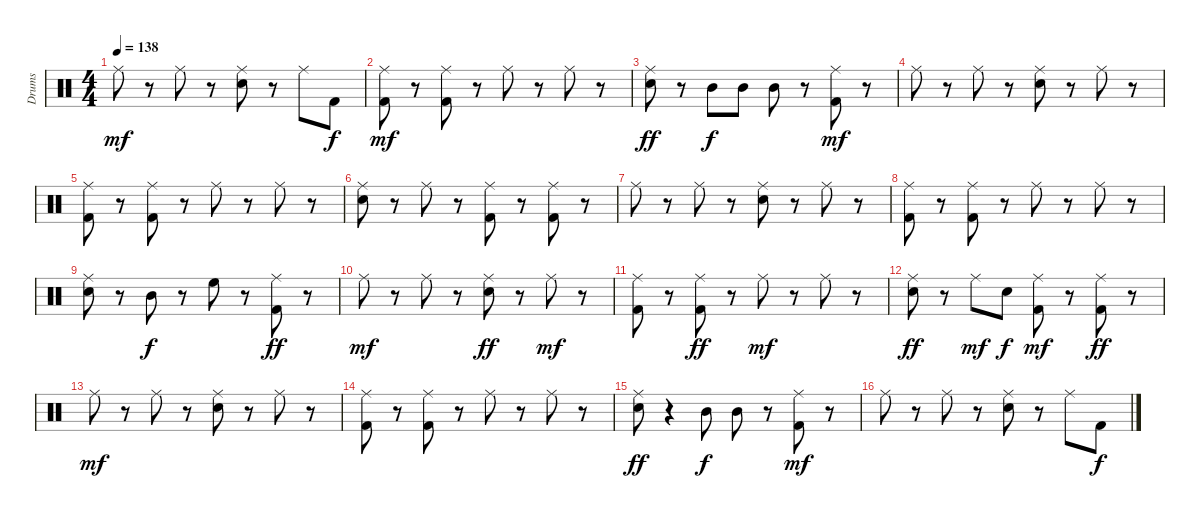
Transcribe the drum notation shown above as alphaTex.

\track ("Drums" "Drums") {instrument percussion}
\staff {score}
\articulation defaults
\ts (4 4)
\tempo 138
\clef neutral
\ks c "Ride (middle)".8{dy mf}
r.8 "Ride (middle)".8 r.8 ("Ride (middle)" "Snare (hit) 2").8 r.8 "Ride (middle)".8 "Kick (hit) 2".8{dy f} |
("Ride (middle)" "Kick (hit) 2").8{dy mf} r.8 ("Ride (middle)" "Kick (hit) 2").8 r.8 "Ride (middle)".8 r.8 "Ride (middle)".8 r.8 |
("Ride (middle)" "Snare (hit) 2").8{dy ff} r.8 "Mid Tom (hit)".8{dy f} "Mid Tom (hit)".8 "Mid Tom (hit)".8 r.8 ("Ride (middle)" "Kick (hit) 2").8{dy mf} r.8 |
"Ride (middle)".8 r.8 "Ride (middle)".8 r.8 ("Ride (middle)" "Snare (hit) 2").8 r.8 "Ride (middle)".8 r.8 |
("Ride (middle)" "Kick (hit) 2").8 r.8 ("Ride (middle)" "Kick (hit) 2").8 r.8 "Ride (middle)".8 r.8 "Ride (middle)".8 r.8 |
("Ride (middle)" "Snare (hit) 2").8 r.8 "Ride (middle)".8 r.8 ("Ride (middle)" "Kick (hit) 2").8 r.8 ("Ride (middle)" "Kick (hit) 2").8 r.8 |
"Ride (middle)".8 r.8 "Ride (middle)".8 r.8 ("Ride (middle)" "Snare (hit) 2").8 r.8 "Ride (middle)".8 r.8 |
("Ride (middle)" "Kick (hit) 2").8 r.8 ("Ride (middle)" "Kick (hit) 2").8 r.8 "Ride (middle)".8 r.8 "Ride (middle)".8 r.8 |
("Ride (middle)" "Snare (hit) 2").8 r.8 "Mid Tom (hit)".8{dy f} r.8 "High Floor Tom (hit)".8 r.8 ("Ride (middle)" "Kick (hit) 2").8{dy ff} r.8 |
"Ride (middle)".8{dy mf} r.8 "Ride (middle)".8 r.8 ("Ride (middle)" "Snare (hit) 2").8{dy ff} r.8 "Ride (middle)".8{dy mf} r.8 |
("Ride (middle)" "Kick (hit) 2").8 r.8 ("Ride (middle)" "Kick (hit) 2").8{dy ff} r.8 "Ride (middle)".8{dy mf} r.8 "Ride (middle)".8 r.8 |
("Ride (middle)" "Snare (hit) 2").8{dy ff} r.8 "Ride (middle)".8{dy mf} "Snare (hit) 2".8{dy f} ("Ride (middle)" "Kick (hit) 2").8{dy mf} r.8 ("Ride (middle)" "Kick (hit) 2").8{dy ff} r.8 |
"Ride (middle)".8{dy mf} r.8 "Ride (middle)".8 r.8 ("Ride (middle)" "Snare (hit) 2").8 r.8 "Ride (middle)".8 r.8 |
("Ride (middle)" "Kick (hit) 2").8 r.8 ("Ride (middle)" "Kick (hit) 2").8 r.8 "Ride (middle)".8 r.8 "Ride (middle)".8 r.8 |
("Ride (middle)" "Snare (hit) 2").8{dy ff} r.4 "Mid Tom (hit)".8{dy f} "Mid Tom (hit)".8 r.8 ("Ride (middle)" "Kick (hit) 2").8{dy mf} r.8 |
"Ride (middle)".8 r.8 "Ride (middle)".8 r.8 ("Ride (middle)" "Snare (hit) 2").8 r.8 "Ride (middle)".8 "Kick (hit) 2".8{dy f}
